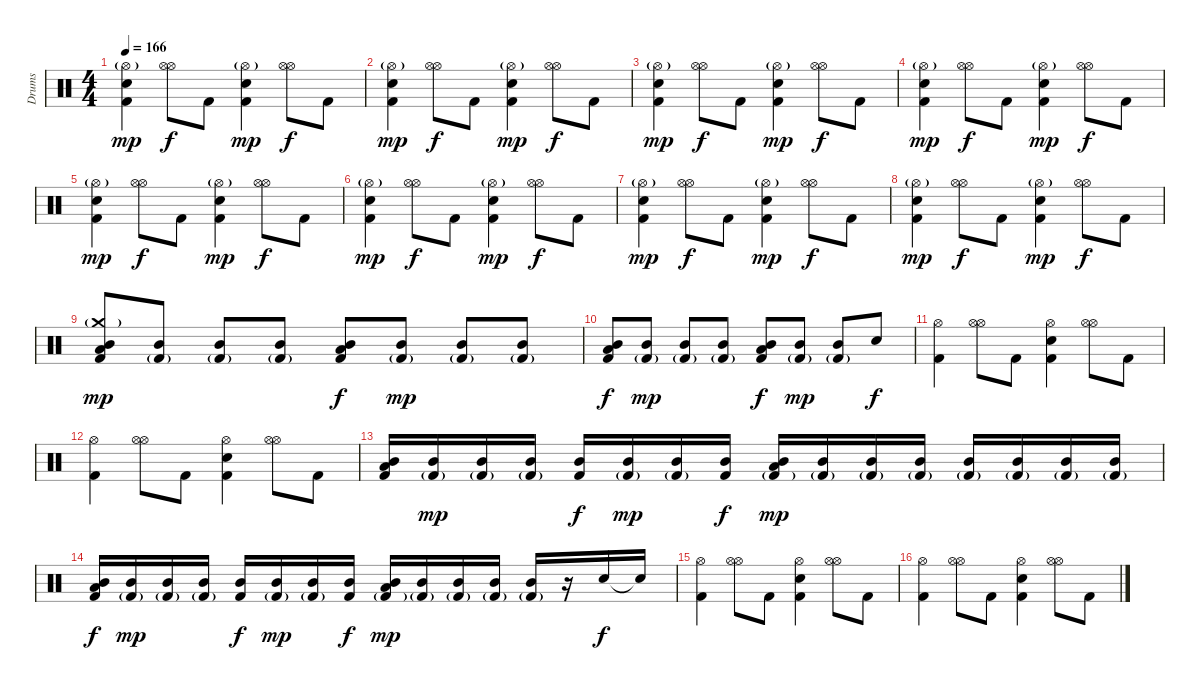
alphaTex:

\track ("Drums" "Drums") {instrument percussion}
\staff {score}
\articulation defaults
\ts (4 4)
\tempo 166
\clef neutral
\ks c
("Hi-Hat (open)"{g} "Kick (hit) 2" "Snare (hit) 2").4{dy mp} ("Hi-Hat (open)" "Hi-Hat (open)").8{dy f} "Kick (hit) 2".8 ("Hi-Hat (open)"{g} "Kick (hit) 2" "Snare (hit) 2").4{dy mp} ("Hi-Hat (open)" "Hi-Hat (open)").8{dy f} "Kick (hit) 2".8 |
("Hi-Hat (open)"{g} "Kick (hit) 2" "Snare (hit) 2").4{dy mp} ("Hi-Hat (open)" "Hi-Hat (open)").8{dy f} "Kick (hit) 2".8 ("Hi-Hat (open)"{g} "Kick (hit) 2" "Snare (hit) 2").4{dy mp} ("Hi-Hat (open)" "Hi-Hat (open)").8{dy f} "Kick (hit) 2".8 |
("Hi-Hat (open)"{g} "Kick (hit) 2" "Snare (hit) 2").4{dy mp} ("Hi-Hat (open)" "Hi-Hat (open)").8{dy f} "Kick (hit) 2".8 ("Hi-Hat (open)"{g} "Kick (hit) 2" "Snare (hit) 2").4{dy mp} ("Hi-Hat (open)" "Hi-Hat (open)").8{dy f} "Kick (hit) 2".8 |
("Hi-Hat (open)"{g} "Kick (hit) 2" "Snare (hit) 2").4{dy mp} ("Hi-Hat (open)" "Hi-Hat (open)").8{dy f} "Kick (hit) 2".8 ("Hi-Hat (open)"{g} "Kick (hit) 2" "Snare (hit) 2").4{dy mp} ("Hi-Hat (open)" "Hi-Hat (open)").8{dy f} "Kick (hit) 2".8 |
("Hi-Hat (open)"{g} "Kick (hit) 2" "Snare (hit) 2").4{dy mp} ("Hi-Hat (open)" "Hi-Hat (open)").8{dy f} "Kick (hit) 2".8 ("Hi-Hat (open)"{g} "Kick (hit) 2" "Snare (hit) 2").4{dy mp} ("Hi-Hat (open)" "Hi-Hat (open)").8{dy f} "Kick (hit) 2".8 |
("Hi-Hat (open)"{g} "Kick (hit) 2" "Snare (hit) 2").4{dy mp} ("Hi-Hat (open)" "Hi-Hat (open)").8{dy f} "Kick (hit) 2".8 ("Hi-Hat (open)"{g} "Kick (hit) 2" "Snare (hit) 2").4{dy mp} ("Hi-Hat (open)" "Hi-Hat (open)").8{dy f} "Kick (hit) 2".8 |
("Hi-Hat (open)"{g} "Kick (hit) 2" "Snare (hit) 2").4{dy mp} ("Hi-Hat (open)" "Hi-Hat (open)").8{dy f} "Kick (hit) 2".8 ("Hi-Hat (open)"{g} "Kick (hit) 2" "Snare (hit) 2").4{dy mp} ("Hi-Hat (open)" "Hi-Hat (open)").8{dy f} "Kick (hit) 2".8 |
("Hi-Hat (open)"{g} "Kick (hit) 2" "Snare (hit) 2").4{dy mp} ("Hi-Hat (open)" "Hi-Hat (open)").8{dy f} "Kick (hit) 2".8 ("Hi-Hat (open)"{g} "Kick (hit) 2" "Snare (hit) 2").4{dy mp} ("Hi-Hat (open)" "Hi-Hat (open)").8{dy f} "Kick (hit) 2".8 |
("Crash medium (hit)"{g} "Low Floor Tom (hit)" "Kick (hit) 2" "Mid Tom (hit)").8{dy mp} ("Kick (hit) 2"{g} "Mid Tom (hit)").8 ("Kick (hit) 2"{g} "Mid Tom (hit)").8 ("Kick (hit) 2"{g} "Mid Tom (hit)").8 ("Low Floor Tom (hit)" "Kick (hit) 2" "Mid Tom (hit)").8{dy f} ("Kick (hit) 2"{g} "Mid Tom (hit)").8{dy mp} ("Kick (hit) 2"{g} "Mid Tom (hit)").8 ("Kick (hit) 2"{g} "Mid Tom (hit)").8 |
("Low Floor Tom (hit)" "Kick (hit) 2" "Mid Tom (hit)").8{dy f} ("Kick (hit) 2"{g} "Mid Tom (hit)").8{dy mp} ("Kick (hit) 2"{g} "Mid Tom (hit)").8 ("Kick (hit) 2"{g} "Mid Tom (hit)").8 ("Low Floor Tom (hit)" "Kick (hit) 2" "Mid Tom (hit)").8{dy f} ("Kick (hit) 2"{g} "Mid Tom (hit)").8{dy mp} ("Kick (hit) 2"{g} "Mid Tom (hit)").8 "Snare (hit) 2".8{dy f} |
("Hi-Hat (open)" "Kick (hit) 2").4 ("Hi-Hat (open)" "Hi-Hat (open)").8 "Kick (hit) 2".8 ("Hi-Hat (open)" "Kick (hit) 2" "Electric Snare (hit)").4 ("Hi-Hat (open)" "Hi-Hat (open)").8 "Kick (hit) 2".8 |
("Hi-Hat (open)" "Kick (hit) 2").4 ("Hi-Hat (open)" "Hi-Hat (open)").8 "Kick (hit) 2".8 ("Hi-Hat (open)" "Kick (hit) 2" "Electric Snare (hit)").4 ("Hi-Hat (open)" "Hi-Hat (open)").8 "Kick (hit) 2".8 |
("Low Floor Tom (hit)" "Kick (hit) 2" "Mid Tom (hit)").16 ("Kick (hit) 2"{g} "Mid Tom (hit)").16{dy mp} ("Kick (hit) 2"{g} "Mid Tom (hit)").16 ("Kick (hit) 2"{g} "Mid Tom (hit)").16 ("Kick (hit) 2" "Mid Tom (hit)").16{dy f} ("Kick (hit) 2"{g} "Mid Tom (hit)").16{dy mp} ("Kick (hit) 2"{g} "Mid Tom (hit)").16 ("Kick (hit) 2" "Mid Tom (hit)").16{dy f} ("Low Floor Tom (hit)" "Kick (hit) 2"{g} "Mid Tom (hit)").16{dy mp} ("Kick (hit) 2"{g} "Mid Tom (hit)").16 ("Kick (hit) 2"{g} "Mid Tom (hit)").16 ("Kick (hit) 2"{g} "Mid Tom (hit)").16 ("Kick (hit) 2"{g} "Mid Tom (hit)").16 ("Kick (hit) 2"{g} "Mid Tom (hit)").16 ("Kick (hit) 2"{g} "Mid Tom (hit)").16 ("Kick (hit) 2"{g} "Mid Tom (hit)").16 |
("Low Floor Tom (hit)" "Kick (hit) 2" "Mid Tom (hit)").16{dy f} ("Kick (hit) 2"{g} "Mid Tom (hit)").16{dy mp} ("Kick (hit) 2"{g} "Mid Tom (hit)").16 ("Kick (hit) 2"{g} "Mid Tom (hit)").16 ("Kick (hit) 2" "Mid Tom (hit)").16{dy f} ("Kick (hit) 2"{g} "Mid Tom (hit)").16{dy mp} ("Kick (hit) 2"{g} "Mid Tom (hit)").16 ("Kick (hit) 2" "Mid Tom (hit)").16{dy f} ("Low Floor Tom (hit)" "Kick (hit) 2"{g} "Mid Tom (hit)").16{dy mp} ("Kick (hit) 2"{g} "Mid Tom (hit)").16 ("Kick (hit) 2"{g} "Mid Tom (hit)").16 ("Kick (hit) 2"{g} "Mid Tom (hit)").16 ("Kick (hit) 2"{g} "Mid Tom (hit)").16 r.16 "Snare (hit) 2".16{dy f} "Snare (hit)"{t}.16 |
("Hi-Hat (open)" "Kick (hit) 2").4 ("Hi-Hat (open)" "Hi-Hat (open)").8 "Kick (hit) 2".8 ("Hi-Hat (open)" "Kick (hit) 2" "Electric Snare (hit)").4 ("Hi-Hat (open)" "Hi-Hat (open)").8 "Kick (hit) 2".8 |
("Hi-Hat (open)" "Kick (hit) 2").4 ("Hi-Hat (open)" "Hi-Hat (open)").8 "Kick (hit) 2".8 ("Hi-Hat (open)" "Kick (hit) 2" "Electric Snare (hit)").4 ("Hi-Hat (open)" "Hi-Hat (open)").8 "Kick (hit) 2".8
